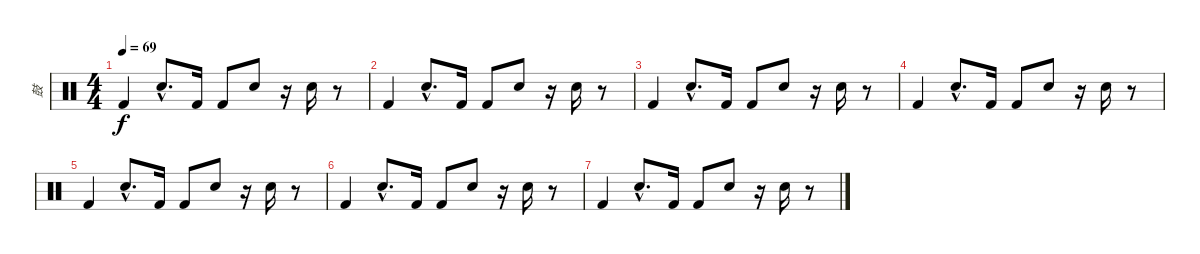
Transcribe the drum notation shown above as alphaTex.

\track ("鼓" "鼓") {instrument percussion}
\staff {score}
\articulation defaults
\ts (4 4)
\tempo 69
\clef neutral
\ks c "Kick (hit) 2".4{dy f} "Snare (hit) 2"{hac}.8{d} "Kick (hit) 2".16 "Kick (hit) 2".8 "Snare (hit) 2".8
r.16 "Snare (hit) 2".16 r.8 |
"Kick (hit) 2".4 "Snare (hit) 2"{hac}.8{d} "Kick (hit) 2".16 "Kick (hit) 2".8 "Snare (hit) 2".8 r.16 "Snare (hit) 2".16 r.8 |
"Kick (hit) 2".4 "Snare (hit) 2"{hac}.8{d} "Kick (hit) 2".16 "Kick (hit) 2".8 "Snare (hit) 2".8 r.16 "Snare (hit) 2".16 r.8 |
"Kick (hit) 2".4 "Snare (hit) 2"{hac}.8{d} "Kick (hit) 2".16 "Kick (hit) 2".8 "Snare (hit) 2".8 r.16 "Snare (hit) 2".16 r.8 |
"Kick (hit) 2".4 "Snare (hit) 2"{hac}.8{d} "Kick (hit) 2".16 "Kick (hit) 2".8 "Snare (hit) 2".8 r.16 "Snare (hit) 2".16 r.8 |
"Kick (hit) 2".4 "Snare (hit) 2"{hac}.8{d} "Kick (hit) 2".16 "Kick (hit) 2".8 "Snare (hit) 2".8 r.16 "Snare (hit) 2".16 r.8 |
"Kick (hit) 2".4 "Snare (hit) 2"{hac}.8{d} "Kick (hit) 2".16 "Kick (hit) 2".8 "Snare (hit) 2".8 r.16 "Snare (hit) 2".16 r.8
